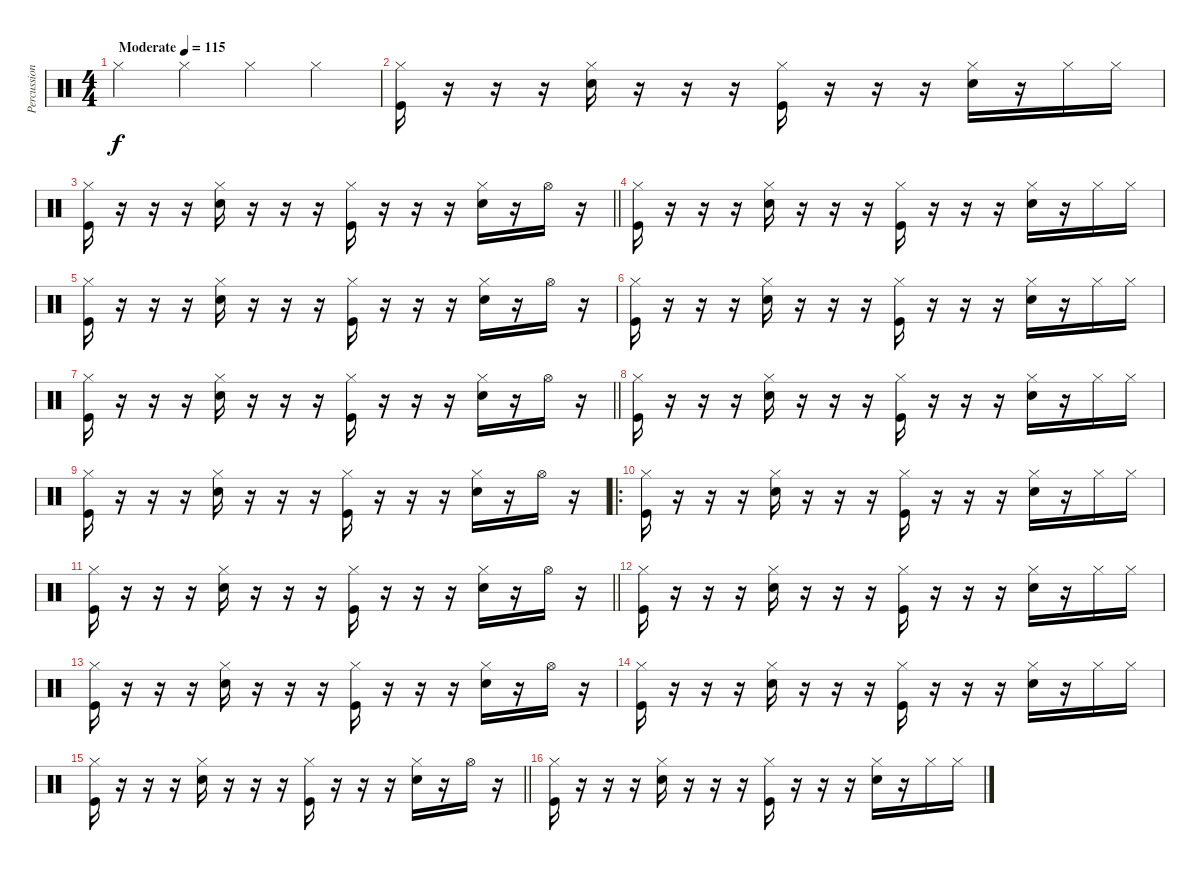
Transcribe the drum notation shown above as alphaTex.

\track ("Percussions" "Percussion") {instrument percussion}
\staff {score}
\articulation defaults
\ts (4 4)
\tempo (115 "Moderate")
\clef neutral
\ks c "Hi-Hat (closed)".4{dy f} "Hi-Hat (closed)".4 "Hi-Hat (closed)".4 "Hi-Hat (closed)".4
|
("Kick (hit)" "Hi-Hat (closed)").16 r.16 r.16 r.16 ("Snare (hit) 2" "Hi-Hat (closed)").16 r.16 r.16 r.16 ("Kick (hit)" "Hi-Hat (closed)").16 r.16 r.16 r.16 ("Snare (hit) 2" "Hi-Hat (closed)").16 r.16 "Hi-Hat (closed)".16 "Hi-Hat (closed)".16 |
\barLineRight lightlight
("Kick (hit)" "Hi-Hat (closed)").16 r.16 r.16 r.16 ("Snare (hit) 2" "Hi-Hat (closed)").16 r.16 r.16 r.16 ("Kick (hit)" "Hi-Hat (closed)").16 r.16 r.16 r.16 ("Snare (hit) 2" "Hi-Hat (closed)").16 r.16 "Hi-Hat (open)".16 r.16 |
("Kick (hit)" "Hi-Hat (closed)").16 r.16 r.16 r.16 ("Snare (hit) 2" "Hi-Hat (closed)").16 r.16 r.16 r.16 ("Kick (hit)" "Hi-Hat (closed)").16 r.16 r.16 r.16 ("Snare (hit) 2" "Hi-Hat (closed)").16 r.16 "Hi-Hat (closed)".16 "Hi-Hat (closed)".16 |
("Kick (hit)" "Hi-Hat (closed)").16 r.16 r.16 r.16 ("Snare (hit) 2" "Hi-Hat (closed)").16 r.16 r.16 r.16 ("Kick (hit)" "Hi-Hat (closed)").16 r.16 r.16 r.16 ("Snare (hit) 2" "Hi-Hat (closed)").16 r.16 "Hi-Hat (open)".16 r.16 |
("Kick (hit)" "Hi-Hat (closed)").16 r.16 r.16 r.16 ("Snare (hit) 2" "Hi-Hat (closed)").16 r.16 r.16 r.16 ("Kick (hit)" "Hi-Hat (closed)").16 r.16 r.16 r.16 ("Snare (hit) 2" "Hi-Hat (closed)").16 r.16 "Hi-Hat (closed)".16 "Hi-Hat (closed)".16 |
\barLineRight lightlight
("Kick (hit)" "Hi-Hat (closed)").16 r.16 r.16 r.16 ("Snare (hit) 2" "Hi-Hat (closed)").16 r.16 r.16 r.16 ("Kick (hit)" "Hi-Hat (closed)").16 r.16 r.16 r.16 ("Snare (hit) 2" "Hi-Hat (closed)").16 r.16 "Hi-Hat (open)".16 r.16 |
("Kick (hit)" "Hi-Hat (closed)").16 r.16 r.16 r.16 ("Snare (hit) 2" "Hi-Hat (closed)").16 r.16 r.16 r.16 ("Kick (hit)" "Hi-Hat (closed)").16 r.16 r.16 r.16 ("Snare (hit) 2" "Hi-Hat (closed)").16 r.16 "Hi-Hat (closed)".16 "Hi-Hat (closed)".16 |
("Kick (hit)" "Hi-Hat (closed)").16 r.16 r.16 r.16 ("Snare (hit) 2" "Hi-Hat (closed)").16 r.16 r.16 r.16 ("Kick (hit)" "Hi-Hat (closed)").16 r.16 r.16 r.16 ("Snare (hit) 2" "Hi-Hat (closed)").16 r.16 "Hi-Hat (open)".16 r.16 |
\ro
("Kick (hit)" "Hi-Hat (closed)").16 r.16 r.16 r.16 ("Snare (hit) 2" "Hi-Hat (closed)").16 r.16 r.16 r.16 ("Kick (hit)" "Hi-Hat (closed)").16 r.16 r.16 r.16 ("Snare (hit) 2" "Hi-Hat (closed)").16 r.16 "Hi-Hat (closed)".16 "Hi-Hat (closed)".16 |
\barLineRight lightlight
("Kick (hit)" "Hi-Hat (closed)").16 r.16 r.16 r.16 ("Snare (hit) 2" "Hi-Hat (closed)").16 r.16 r.16 r.16 ("Kick (hit)" "Hi-Hat (closed)").16 r.16 r.16 r.16 ("Snare (hit) 2" "Hi-Hat (closed)").16 r.16 "Hi-Hat (open)".16 r.16 |
("Kick (hit)" "Hi-Hat (closed)").16 r.16 r.16 r.16 ("Snare (hit) 2" "Hi-Hat (closed)").16 r.16 r.16 r.16 ("Kick (hit)" "Hi-Hat (closed)").16 r.16 r.16 r.16 ("Snare (hit) 2" "Hi-Hat (closed)").16 r.16 "Hi-Hat (closed)".16 "Hi-Hat (closed)".16 |
("Kick (hit)" "Hi-Hat (closed)").16 r.16 r.16 r.16 ("Snare (hit) 2" "Hi-Hat (closed)").16 r.16 r.16 r.16 ("Kick (hit)" "Hi-Hat (closed)").16 r.16 r.16 r.16 ("Snare (hit) 2" "Hi-Hat (closed)").16 r.16 "Hi-Hat (open)".16 r.16 |
("Kick (hit)" "Hi-Hat (closed)").16 r.16 r.16 r.16 ("Snare (hit) 2" "Hi-Hat (closed)").16 r.16 r.16 r.16 ("Kick (hit)" "Hi-Hat (closed)").16 r.16 r.16 r.16 ("Snare (hit) 2" "Hi-Hat (closed)").16 r.16 "Hi-Hat (closed)".16 "Hi-Hat (closed)".16 |
\barLineRight lightlight
("Kick (hit)" "Hi-Hat (closed)").16 r.16 r.16 r.16 ("Snare (hit) 2" "Hi-Hat (closed)").16 r.16 r.16 r.16 ("Kick (hit)" "Hi-Hat (closed)").16 r.16 r.16 r.16 ("Snare (hit) 2" "Hi-Hat (closed)").16 r.16 "Hi-Hat (open)".16 r.16 |
("Kick (hit)" "Hi-Hat (closed)").16 r.16 r.16 r.16 ("Snare (hit) 2" "Hi-Hat (closed)").16 r.16 r.16 r.16 ("Kick (hit)" "Hi-Hat (closed)").16 r.16 r.16 r.16 ("Snare (hit) 2" "Hi-Hat (closed)").16 r.16 "Hi-Hat (closed)".16 "Hi-Hat (closed)".16
